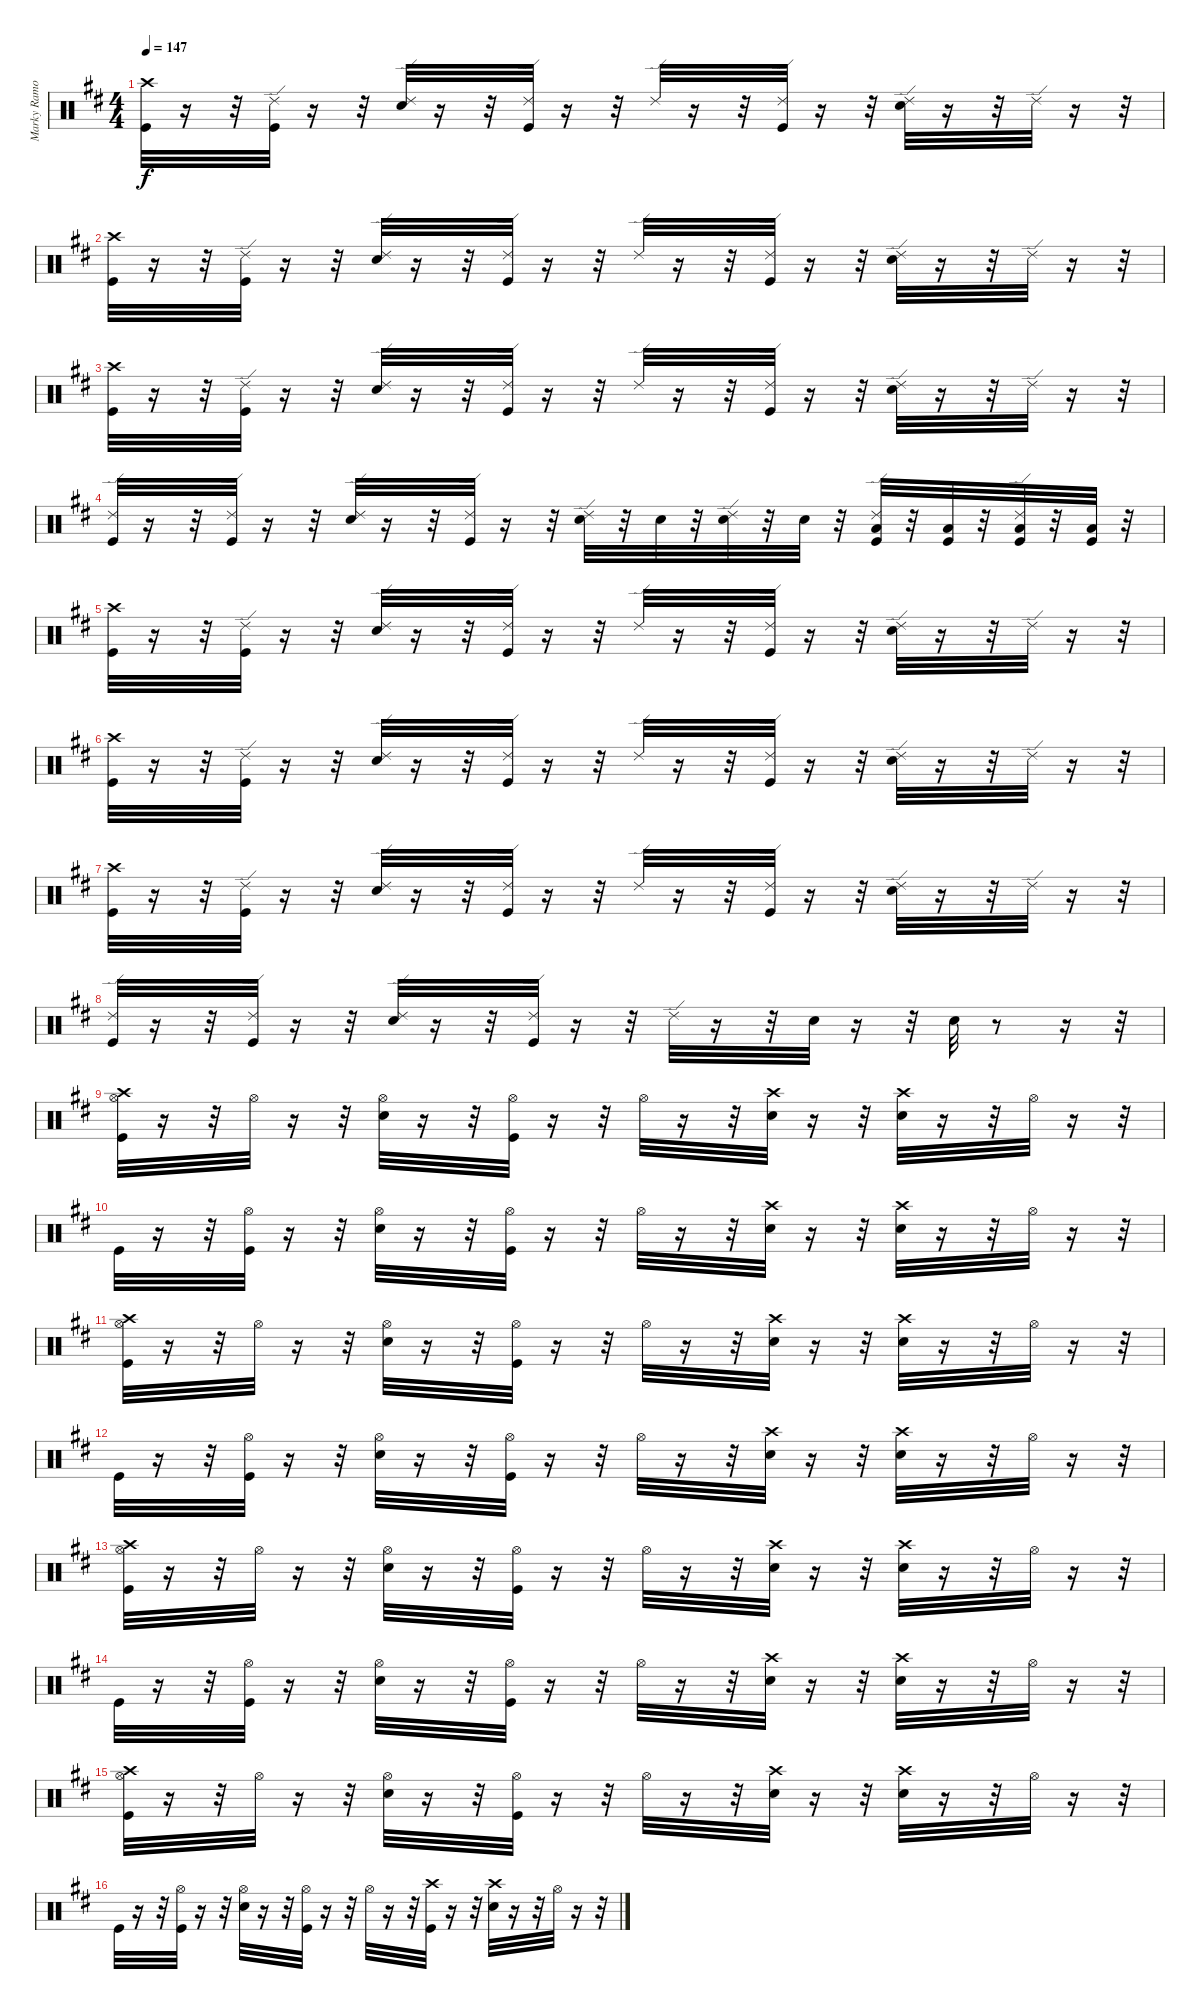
\track ("Marky Ramone" "Marky Ramo") {instrument percussion}
\staff {score}
\articulation defaults
\ts (4 4)
\tempo 147
\clef neutral
\ks d
("Crash high (hit)" "Kick (hit)").32{dy f} r.16 r.32 ("Ride (edge) 2" "Kick (hit)").32 r.16 r.32 ("Ride (edge) 2" "Electric Snare (hit)").32 r.16 r.32 ("Ride (edge) 2" "Kick (hit)").32 r.16 r.32 "Ride (edge) 2".32 r.16 r.32 ("Ride (edge) 2" "Kick (hit)").32 r.16 r.32 ("Ride (edge) 2" "Electric Snare (hit)").32 r.16 r.32 "Ride (edge) 2".32 r.16 r.32 |
("Crash high (hit)" "Kick (hit)").32 r.16 r.32 ("Ride (edge) 2" "Kick (hit)").32 r.16 r.32 ("Electric Snare (hit)" "Ride (edge) 2").32 r.16 r.32 ("Kick (hit)" "Ride (edge) 2").32 r.16 r.32 "Ride (edge) 2".32 r.16 r.32 ("Kick (hit)" "Ride (edge) 2").32 r.16 r.32 ("Ride (edge) 2" "Electric Snare (hit)").32 r.16 r.32 "Ride (edge) 2".32 r.16 r.32 |
("Crash high (hit)" "Kick (hit)").32 r.16 r.32 ("Ride (edge) 2" "Kick (hit)").32 r.16 r.32 ("Ride (edge) 2" "Electric Snare (hit)").32 r.16 r.32 ("Ride (edge) 2" "Kick (hit)").32 r.16 r.32 "Ride (edge) 2".32 r.16 r.32 ("Ride (edge) 2" "Kick (hit)").32 r.16 r.32 ("Ride (edge) 2" "Electric Snare (hit)").32 r.16 r.32 "Ride (edge) 2".32 r.16 r.32 |
("Ride (edge) 2" "Kick (hit)").32 r.16 r.32 ("Ride (edge) 2" "Kick (hit)").32 r.16 r.32 ("Ride (edge) 2" "Electric Snare (hit)").32 r.16 r.32 ("Ride (edge) 2" "Kick (hit)").32 r.16 r.32 ("Electric Snare (hit)" "Ride (edge) 2").32 r.32 "Electric Snare (hit)".32 r.32 ("Electric Snare (hit)" "Ride (edge) 2").32 r.32 "Electric Snare (hit)".32 r.32 ("Low Floor Tom (hit)" "Kick (hit)" "Ride (edge) 2").32 r.32 ("Low Floor Tom (hit)" "Kick (hit)").32 r.32 ("Low Floor Tom (hit)" "Kick (hit)" "Ride (edge) 2").32 r.32 ("Low Floor Tom (hit)" "Kick (hit)").32 r.32 |
("Kick (hit)" "Crash high (hit)").32 r.16 r.32 ("Ride (edge) 2" "Kick (hit)").32 r.16 r.32 ("Ride (edge) 2" "Electric Snare (hit)").32 r.16 r.32 ("Ride (edge) 2" "Kick (hit)").32 r.16 r.32 "Ride (edge) 2".32 r.16 r.32 ("Ride (edge) 2" "Kick (hit)").32 r.16 r.32 ("Ride (edge) 2" "Electric Snare (hit)").32 r.16 r.32 "Ride (edge) 2".32 r.16 r.32 |
("Crash high (hit)" "Kick (hit)").32 r.16 r.32 ("Ride (edge) 2" "Kick (hit)").32 r.16 r.32 ("Ride (edge) 2" "Electric Snare (hit)").32 r.16 r.32 ("Ride (edge) 2" "Kick (hit)").32 r.16 r.32 "Ride (edge) 2".32 r.16 r.32 ("Ride (edge) 2" "Kick (hit)").32 r.16 r.32 ("Ride (edge) 2" "Electric Snare (hit)").32 r.16 r.32 "Ride (edge) 2".32 r.16 r.32 |
("Kick (hit)" "Crash high (hit)").32 r.16 r.32 ("Ride (edge) 2" "Kick (hit)").32 r.16 r.32 ("Ride (edge) 2" "Electric Snare (hit)").32 r.16 r.32 ("Ride (edge) 2" "Kick (hit)").32 r.16 r.32 "Ride (edge) 2".32 r.16 r.32 ("Ride (edge) 2" "Kick (hit)").32 r.16 r.32 ("Ride (edge) 2" "Electric Snare (hit)").32 r.16 r.32 "Ride (edge) 2".32 r.16 r.32 |
("Ride (edge) 2" "Kick (hit)").32 r.16 r.32 ("Ride (edge) 2" "Kick (hit)").32 r.16 r.32 ("Ride (edge) 2" "Electric Snare (hit)").32 r.16 r.32 ("Ride (edge) 2" "Kick (hit)").32 r.16 r.32 "Ride (edge) 2".32 r.16 r.32 "Electric Snare (hit)".32 r.16 r.32 "Electric Snare (hit)".32 r.8 r.16 r.32 |
("Hi-Hat (open)" "Crash high (hit)" "Kick (hit)").32 r.16 r.32 "Hi-Hat (open)".32 r.16 r.32 ("Hi-Hat (open)" "Electric Snare (hit)").32 r.16 r.32 ("Hi-Hat (open)" "Kick (hit)").32 r.16 r.32 "Hi-Hat (open)".32 r.16 r.32 ("Crash high (hit)" "Electric Snare (hit)").32 r.16 r.32 ("Crash high (hit)" "Electric Snare (hit)").32 r.16 r.32 "Hi-Hat (open)".32 r.16 r.32 |
"Kick (hit)".32 r.16 r.32 ("Hi-Hat (open)" "Kick (hit)").32 r.16 r.32 ("Hi-Hat (open)" "Electric Snare (hit)").32 r.16 r.32 ("Hi-Hat (open)" "Kick (hit)").32 r.16 r.32 "Hi-Hat (open)".32 r.16 r.32 ("Crash high (hit)" "Electric Snare (hit)").32 r.16 r.32 ("Crash high (hit)" "Electric Snare (hit)").32 r.16 r.32 "Hi-Hat (open)".32 r.16 r.32 |
("Hi-Hat (open)" "Crash high (hit)" "Kick (hit)").32 r.16 r.32 "Hi-Hat (open)".32 r.16 r.32 ("Hi-Hat (open)" "Electric Snare (hit)").32 r.16 r.32 ("Hi-Hat (open)" "Kick (hit)").32 r.16 r.32 "Hi-Hat (open)".32 r.16 r.32 ("Crash high (hit)" "Electric Snare (hit)").32 r.16 r.32 ("Crash high (hit)" "Electric Snare (hit)").32 r.16 r.32 "Hi-Hat (open)".32 r.16 r.32 |
"Kick (hit)".32 r.16 r.32 ("Hi-Hat (open)" "Kick (hit)").32 r.16 r.32 ("Hi-Hat (open)" "Electric Snare (hit)").32 r.16 r.32 ("Hi-Hat (open)" "Kick (hit)").32 r.16 r.32 "Hi-Hat (open)".32 r.16 r.32 ("Crash high (hit)" "Electric Snare (hit)").32 r.16 r.32 ("Crash high (hit)" "Electric Snare (hit)").32 r.16 r.32 "Hi-Hat (open)".32 r.16 r.32 |
("Hi-Hat (open)" "Crash high (hit)" "Kick (hit)").32 r.16 r.32 "Hi-Hat (open)".32 r.16 r.32 ("Hi-Hat (open)" "Electric Snare (hit)").32 r.16 r.32 ("Hi-Hat (open)" "Kick (hit)").32 r.16 r.32 "Hi-Hat (open)".32 r.16 r.32 ("Crash high (hit)" "Electric Snare (hit)").32 r.16 r.32 ("Crash high (hit)" "Electric Snare (hit)").32 r.16 r.32 "Hi-Hat (open)".32 r.16 r.32 |
"Kick (hit)".32 r.16 r.32 ("Hi-Hat (open)" "Kick (hit)").32 r.16 r.32 ("Hi-Hat (open)" "Electric Snare (hit)").32 r.16 r.32 ("Hi-Hat (open)" "Kick (hit)").32 r.16 r.32 "Hi-Hat (open)".32 r.16 r.32 ("Crash high (hit)" "Electric Snare (hit)").32 r.16 r.32 ("Crash high (hit)" "Electric Snare (hit)").32 r.16 r.32 "Hi-Hat (open)".32 r.16 r.32 |
("Hi-Hat (open)" "Crash high (hit)" "Kick (hit)").32 r.16 r.32 "Hi-Hat (open)".32 r.16 r.32 ("Hi-Hat (open)" "Electric Snare (hit)").32 r.16 r.32 ("Hi-Hat (open)" "Kick (hit)").32 r.16 r.32 "Hi-Hat (open)".32 r.16 r.32 ("Crash high (hit)" "Electric Snare (hit)").32 r.16 r.32 ("Crash high (hit)" "Electric Snare (hit)").32 r.16 r.32 "Hi-Hat (open)".32 r.16 r.32 |
"Kick (hit)".32 r.16 r.32 ("Hi-Hat (open)" "Kick (hit)").32 r.16 r.32 ("Hi-Hat (open)" "Electric Snare (hit)").32 r.16 r.32 ("Hi-Hat (open)" "Kick (hit)").32 r.16 r.32 "Hi-Hat (open)".32 r.16 r.32 ("Kick (hit)" "Crash high (hit)").32 r.16 r.32 ("Electric Snare (hit)" "Crash high (hit)").32 r.16 r.32 "Hi-Hat (open)".32 r.16 r.32
